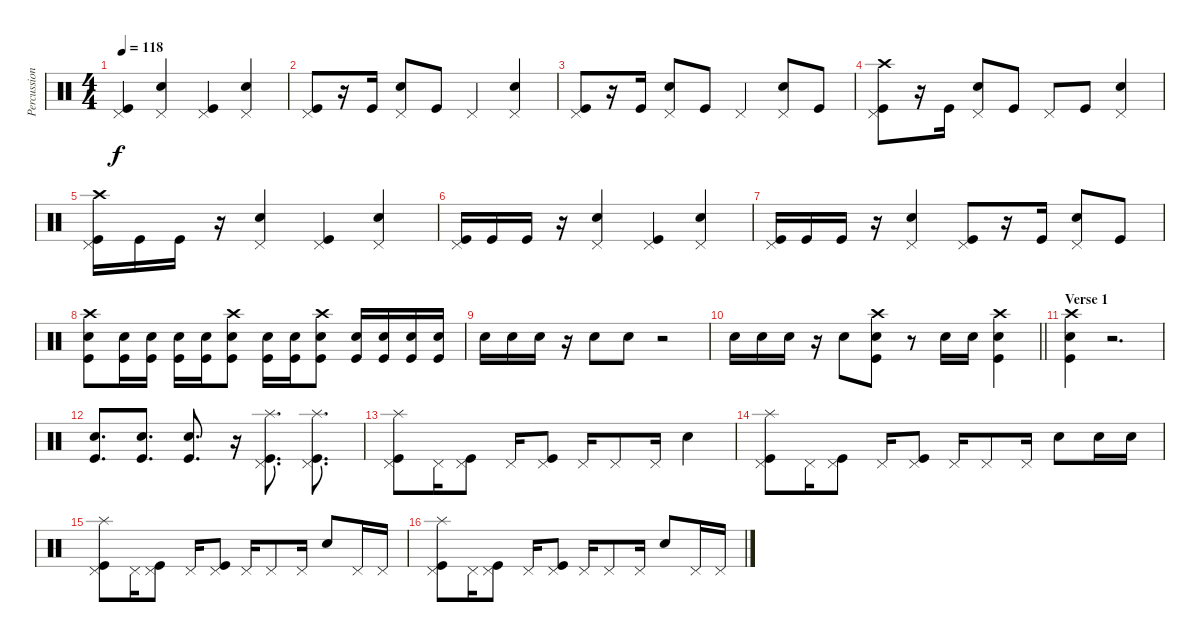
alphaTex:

\track ("Percussion" "Percussion") {instrument percussion}
\staff {score}
\articulation defaults
\ts (4 4)
\tempo 118
\clef neutral
\ks c
("Pedal Hi-Hat (hit)" "Kick (hit)").4{dy f} ("Pedal Hi-Hat (hit)" "Electric Snare (hit)").4 ("Pedal Hi-Hat (hit)" "Kick (hit)").4 ("Pedal Hi-Hat (hit)" "Electric Snare (hit)").4 |
("Pedal Hi-Hat (hit)" "Kick (hit)").8 r.16 "Kick (hit)".16 ("Pedal Hi-Hat (hit)" "Electric Snare (hit)").8 "Kick (hit)".8 "Pedal Hi-Hat (hit)".4 ("Pedal Hi-Hat (hit)" "Electric Snare (hit)").4 |
("Pedal Hi-Hat (hit)" "Kick (hit)").8 r.16 "Kick (hit)".16 ("Pedal Hi-Hat (hit)" "Electric Snare (hit)").8 "Kick (hit)".8 "Pedal Hi-Hat (hit)".4 ("Pedal Hi-Hat (hit)" "Electric Snare (hit)").8 "Kick (hit)".8 |
("Crash high (hit)" "Pedal Hi-Hat (hit)" "Kick (hit)").8 r.16 "Kick (hit)".16 ("Pedal Hi-Hat (hit)" "Electric Snare (hit)").8 "Kick (hit)".8 "Pedal Hi-Hat (hit)".8 "Kick (hit)".8 ("Pedal Hi-Hat (hit)" "Electric Snare (hit)").4 |
("Crash high (hit)" "Pedal Hi-Hat (hit)" "Kick (hit)").16 "Kick (hit)".16 "Kick (hit)".16 r.16 ("Pedal Hi-Hat (hit)" "Electric Snare (hit)").4 ("Pedal Hi-Hat (hit)" "Kick (hit)").4 ("Pedal Hi-Hat (hit)" "Electric Snare (hit)").4 |
("Pedal Hi-Hat (hit)" "Kick (hit)").16 "Kick (hit)".16 "Kick (hit)".16 r.16 ("Pedal Hi-Hat (hit)" "Electric Snare (hit)").4 ("Pedal Hi-Hat (hit)" "Kick (hit)").4 ("Pedal Hi-Hat (hit)" "Electric Snare (hit)").4 |
("Pedal Hi-Hat (hit)" "Kick (hit)").16 "Kick (hit)".16 "Kick (hit)".16 r.16 ("Pedal Hi-Hat (hit)" "Electric Snare (hit)").4 ("Pedal Hi-Hat (hit)" "Kick (hit)").8 r.16 "Kick (hit)".16 ("Pedal Hi-Hat (hit)" "Electric Snare (hit)").8 "Kick (hit)".8 |
("Crash high (hit)" "Electric Snare (hit)" "Kick (hit)").8 ("Electric Snare (hit)" "Kick (hit)").16 ("Electric Snare (hit)" "Kick (hit)").16 ("Electric Snare (hit)" "Kick (hit)").16 ("Electric Snare (hit)" "Kick (hit)").16 ("Crash high (hit)" "Electric Snare (hit)" "Kick (hit)").8 ("Electric Snare (hit)" "Kick (hit)").16 ("Electric Snare (hit)" "Kick (hit)").16 ("Crash high (hit)" "Electric Snare (hit)" "Kick (hit)").8 ("Electric Snare (hit)" "Kick (hit)").16 ("Electric Snare (hit)" "Kick (hit)").16 ("Electric Snare (hit)" "Kick (hit)").16 ("Electric Snare (hit)" "Kick (hit)").16 |
"Electric Snare (hit)".16 "Electric Snare (hit)".16 "Electric Snare (hit)".16 r.16 "Electric Snare (hit)".8 "Electric Snare (hit)".8 r.2 |
\barLineRight lightlight "Electric Snare (hit)".16 "Electric Snare (hit)".16 "Electric Snare (hit)".16
r.16 "Electric Snare (hit)".8 ("Kick (hit)" "Crash high (hit)" "Electric Snare (hit)").8 r.8 "Electric Snare (hit)".16 "Electric Snare (hit)".16 ("Crash high (hit)" "Electric Snare (hit)" "Kick (hit)").4 |
\section ("" "Verse 1")
("Crash high (hit)" "Electric Snare (hit)" "Kick (hit)").4 r.2{d} |
("Electric Snare (hit)" "Kick (hit)").8{d} ("Electric Snare (hit)" "Kick (hit)").8{d} ("Electric Snare (hit)" "Kick (hit)").8{d} r.16 ("Pedal Hi-Hat (hit)" "Splash (hit)" "Kick (hit)").8{d} ("Pedal Hi-Hat (hit)" "Splash (hit)" "Kick (hit)").8{d} |
("Splash (hit)" "Pedal Hi-Hat (hit)" "Kick (hit)").8 "Pedal Hi-Hat (hit)".16 ("Pedal Hi-Hat (hit)" "Kick (hit)").8 "Pedal Hi-Hat (hit)".16 ("Pedal Hi-Hat (hit)" "Kick (hit)").8 "Pedal Hi-Hat (hit)".16 "Pedal Hi-Hat (hit)".8 "Pedal Hi-Hat (hit)".16 "Electric Snare (hit)".4 |
("Splash (hit)" "Pedal Hi-Hat (hit)" "Kick (hit)").8 "Pedal Hi-Hat (hit)".16 ("Pedal Hi-Hat (hit)" "Kick (hit)").8 "Pedal Hi-Hat (hit)".16 ("Pedal Hi-Hat (hit)" "Kick (hit)").8 "Pedal Hi-Hat (hit)".16 "Pedal Hi-Hat (hit)".8 "Pedal Hi-Hat (hit)".16 "Electric Snare (hit)".8 "Electric Snare (hit)".16 "Electric Snare (hit)".16 |
("Splash (hit)" "Pedal Hi-Hat (hit)" "Kick (hit)").8 "Pedal Hi-Hat (hit)".16 ("Pedal Hi-Hat (hit)" "Kick (hit)").8 "Pedal Hi-Hat (hit)".16 ("Pedal Hi-Hat (hit)" "Kick (hit)").8 "Pedal Hi-Hat (hit)".16 "Pedal Hi-Hat (hit)".8 "Pedal Hi-Hat (hit)".16 "Electric Snare (hit)".8 "Pedal Hi-Hat (hit)".16 "Pedal Hi-Hat (hit)".16 |
("Splash (hit)" "Pedal Hi-Hat (hit)" "Kick (hit)").8 "Pedal Hi-Hat (hit)".16 ("Pedal Hi-Hat (hit)" "Kick (hit)").8 "Pedal Hi-Hat (hit)".16 ("Pedal Hi-Hat (hit)" "Kick (hit)").8 "Pedal Hi-Hat (hit)".16 "Pedal Hi-Hat (hit)".8 "Pedal Hi-Hat (hit)".16 "Electric Snare (hit)".8 "Pedal Hi-Hat (hit)".16 "Pedal Hi-Hat (hit)".16
